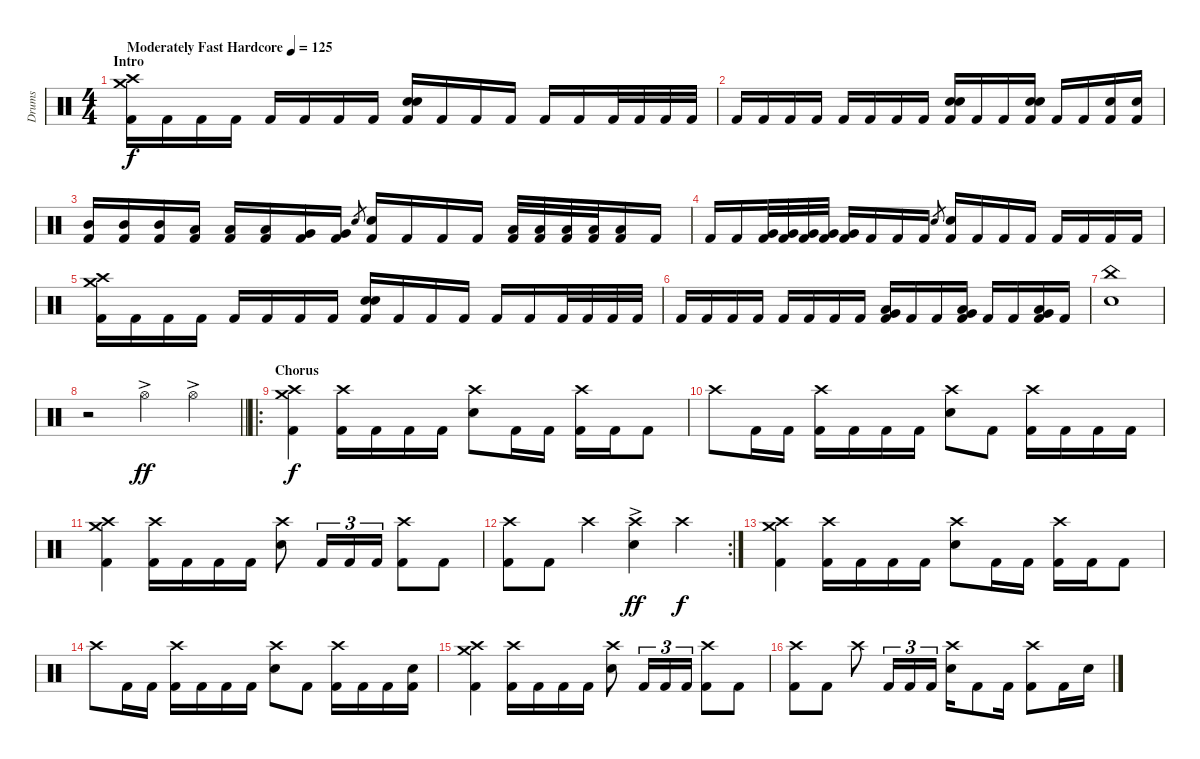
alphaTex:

\track ("Drums" "Drums") {instrument percussion}
\staff {score}
\articulation defaults
\ts (4 4)
\section ("" "Intro")
\tempo (125 "Moderately Fast Hardcore")
\clef neutral
\ks c
("Crash medium (hit)" "Crash high (hit)" "Kick (hit) 2").16{dy f} "Kick (hit) 2".16 "Kick (hit) 2".16 "Kick (hit) 2".16 "Kick (hit) 2".16 "Kick (hit) 2".16 "Kick (hit) 2".16 "Kick (hit) 2".16 ("Electric Snare (hit)" "Electric Snare (hit)" "Kick (hit) 2").16 "Kick (hit) 2".16 "Kick (hit) 2".16 "Kick (hit) 2".16 "Kick (hit) 2".16 "Kick (hit) 2".16 "Kick (hit) 2".32 "Kick (hit) 2".32 "Kick (hit) 2".32 "Kick (hit) 2".32 |
"Kick (hit) 2".16 "Kick (hit) 2".16 "Kick (hit) 2".16 "Kick (hit) 2".16 "Kick (hit) 2".16 "Kick (hit) 2".16 "Kick (hit) 2".16 "Kick (hit) 2".16 ("Electric Snare (hit)" "Electric Snare (hit)" "Kick (hit) 2").16 "Kick (hit) 2".16 "Kick (hit) 2".16 ("Electric Snare (hit)" "Electric Snare (hit)" "Kick (hit) 2").16 "Kick (hit) 2".16 "Kick (hit) 2".16 ("Electric Snare (hit)" "Kick (hit) 2").16 ("Electric Snare (hit)" "Kick (hit) 2").16 |
("Mid Tom (hit)" "Kick (hit) 2").16 ("Mid Tom (hit)" "Kick (hit) 2").16 ("Mid Tom (hit)" "Kick (hit) 2").16 ("Low Tom (hit)" "Kick (hit) 2").16 ("Low Tom (hit)" "Kick (hit) 2").16 ("Low Tom (hit)" "Kick (hit) 2").16 ("Very Low Tom (hit)" "Kick (hit) 2").16 ("Very Low Tom (hit)" "Kick (hit) 2").16 "Electric Snare (hit)".8{gr} ("Electric Snare (hit)" "Kick (hit) 2").16 "Kick (hit) 2".16 "Kick (hit) 2".16 "Kick (hit) 2".16 ("Low Tom (hit)" "Kick (hit) 2").32 ("Low Tom (hit)" "Kick (hit) 2").32 ("Low Tom (hit)" "Kick (hit) 2").32 ("Low Tom (hit)" "Kick (hit) 2").32 ("Low Tom (hit)" "Kick (hit) 2").16 "Kick (hit) 2".16 |
"Kick (hit) 2".16 "Kick (hit) 2".16 ("Very Low Tom (hit)" "Kick (hit) 2").32 ("Very Low Tom (hit)" "Kick (hit) 2").32 ("Very Low Tom (hit)" "Kick (hit) 2").32 ("Very Low Tom (hit)" "Kick (hit) 2").32 ("Very Low Tom (hit)" "Kick (hit) 2").16 "Kick (hit) 2".16 "Kick (hit) 2".16 "Kick (hit) 2".16 "Electric Snare (hit)".8{gr} ("Electric Snare (hit)" "Kick (hit) 2").16 "Kick (hit) 2".16 "Kick (hit) 2".16 "Kick (hit) 2".16 "Kick (hit) 2".16 "Kick (hit) 2".16 "Kick (hit) 2".16 "Kick (hit) 2".16 |
("Crash medium (hit)" "Crash high (hit)" "Kick (hit) 2").16 "Kick (hit) 2".16 "Kick (hit) 2".16 "Kick (hit) 2".16 "Kick (hit) 2".16 "Kick (hit) 2".16 "Kick (hit) 2".16 "Kick (hit) 2".16 ("Electric Snare (hit)" "Electric Snare (hit)" "Kick (hit) 2").16 "Kick (hit) 2".16 "Kick (hit) 2".16 "Kick (hit) 2".16 "Kick (hit) 2".16 "Kick (hit) 2".16 "Kick (hit) 2".32 "Kick (hit) 2".32 "Kick (hit) 2".32 "Kick (hit) 2".32 |
"Kick (hit) 2".16 "Kick (hit) 2".16 "Kick (hit) 2".16 "Kick (hit) 2".16 "Kick (hit) 2".16 "Kick (hit) 2".16 "Kick (hit) 2".16 "Kick (hit) 2".16 ("Very Low Tom (hit)" "Low Floor Tom (hit)" "Kick (hit) 2").16 "Kick (hit) 2".16 "Kick (hit) 2".16 ("Very Low Tom (hit)" "Low Floor Tom (hit)" "Kick (hit) 2").16 "Kick (hit) 2".16 "Kick (hit) 2".16 ("Very Low Tom (hit)" "Low Floor Tom (hit)" "Kick (hit) 2").16 "Kick (hit) 2".16 |
("China (hit)" "Electric Snare (hit)").1 |
\barLineRight lightlight
r.2 "Hi-Hat (open)"{ac}.4{dy ff} "Hi-Hat (open)"{ac}.4 |
\ro
\section ("" "Chorus")
("Crash medium (hit)" "Crash high (hit)" "Kick (hit) 2").4{dy f} ("Crash high (hit)" "Kick (hit) 2").16 "Kick (hit) 2".16 "Kick (hit) 2".16 "Kick (hit) 2".16 ("Crash high (hit)" "Electric Snare (hit)").8 "Kick (hit) 2".16 "Kick (hit) 2".16 ("Crash high (hit)" "Kick (hit) 2").16 "Kick (hit) 2".16 "Kick (hit) 2".8 |
"Crash high (hit)".8 "Kick (hit) 2".16 "Kick (hit) 2".16 ("Crash high (hit)" "Kick (hit) 2").16 "Kick (hit) 2".16 "Kick (hit) 2".16 "Kick (hit) 2".16 ("Crash high (hit)" "Electric Snare (hit)").8 "Kick (hit) 2".8 ("Crash high (hit)" "Kick (hit) 2").16 "Kick (hit) 2".16 "Kick (hit) 2".16 "Kick (hit) 2".16 |
("Crash medium (hit)" "Crash high (hit)" "Kick (hit) 2").4 ("Crash high (hit)" "Kick (hit) 2").16 "Kick (hit) 2".16 "Kick (hit) 2".16 "Kick (hit) 2".16 ("Crash high (hit)" "Electric Snare (hit)").8 "Kick (hit) 2".16{tu (3 2)} "Kick (hit) 2".16{tu (3 2)} "Kick (hit) 2".16{tu (3 2)} ("Crash high (hit)" "Kick (hit) 2").8 "Kick (hit) 2".8 |
\rc 2
("Crash high (hit)" "Kick (hit) 2").8 "Kick (hit) 2".8 "Crash high (hit)".4 ("Crash high (hit)"{ac} "Electric Snare (hit)").4{dy ff} "Crash high (hit)".4{dy f} |
("Crash medium (hit)" "Crash high (hit)" "Kick (hit) 2").4 ("Crash high (hit)" "Kick (hit) 2").16 "Kick (hit) 2".16 "Kick (hit) 2".16 "Kick (hit) 2".16 ("Crash high (hit)" "Electric Snare (hit)").8 "Kick (hit) 2".16 "Kick (hit) 2".16 ("Crash high (hit)" "Kick (hit) 2").16 "Kick (hit) 2".16 "Kick (hit) 2".8 |
"Crash high (hit)".8 "Kick (hit) 2".16 "Kick (hit) 2".16 ("Crash high (hit)" "Kick (hit) 2").16 "Kick (hit) 2".16 "Kick (hit) 2".16 "Kick (hit) 2".16 ("Crash high (hit)" "Electric Snare (hit)").8 "Kick (hit) 2".8 ("Crash high (hit)" "Kick (hit) 2").16 "Kick (hit) 2".16 "Kick (hit) 2".16 ("Electric Snare (hit)" "Kick (hit) 2").16 |
("Crash medium (hit)" "Crash high (hit)" "Kick (hit) 2").4 ("Crash high (hit)" "Kick (hit) 2").16 "Kick (hit) 2".16 "Kick (hit) 2".16 "Kick (hit) 2".16 ("Crash high (hit)" "Electric Snare (hit)").8 "Kick (hit) 2".16{tu (3 2)} "Kick (hit) 2".16{tu (3 2)} "Kick (hit) 2".16{tu (3 2)} ("Crash high (hit)" "Kick (hit) 2").8 "Kick (hit) 2".8 |
("Crash high (hit)" "Kick (hit) 2").8 "Kick (hit) 2".8 "Crash high (hit)".8 "Kick (hit) 2".16{tu (3 2)} "Kick (hit) 2".16{tu (3 2)} "Kick (hit) 2".16{tu (3 2)} ("Crash high (hit)" "Electric Snare (hit)").16 "Kick (hit) 2".8 "Kick (hit) 2".16 ("Crash high (hit)" "Kick (hit) 2").8 "Kick (hit) 2".16 "Electric Snare (hit)".16
